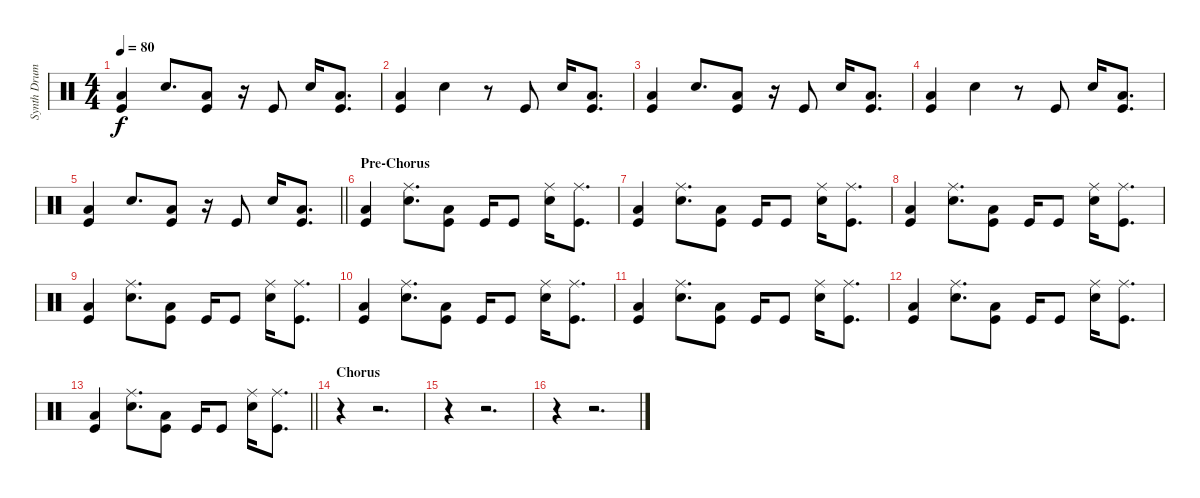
\track ("Synth Drums" "Synth Drum") {instrument percussion}
\staff {score}
\articulation defaults
\ts (4 4)
\tempo 80
\clef neutral
\ks c
("Kick (hit)" "Low Floor Tom (hit)").4{dy f} "Snare (hit) 2".8{d} ("Kick (hit)" "Low Floor Tom (hit)").8 r.16 "Kick (hit)".8 "Snare (hit) 2".16 ("Kick (hit)" "Low Floor Tom (hit)").8{d} |
("Kick (hit)" "Low Floor Tom (hit)").4 "Snare (hit) 2".4 r.8 "Kick (hit)".8 "Snare (hit) 2".16 ("Kick (hit)" "Low Floor Tom (hit)").8{d} |
("Kick (hit)" "Low Floor Tom (hit)").4 "Snare (hit) 2".8{d} ("Kick (hit)" "Low Floor Tom (hit)").8 r.16 "Kick (hit)".8 "Snare (hit) 2".16 ("Kick (hit)" "Low Floor Tom (hit)").8{d} |
("Kick (hit)" "Low Floor Tom (hit)").4 "Snare (hit) 2".4 r.8 "Kick (hit)".8 "Snare (hit) 2".16 ("Kick (hit)" "Low Floor Tom (hit)").8{d} |
\barLineRight lightlight
("Kick (hit)" "Low Floor Tom (hit)").4 "Snare (hit) 2".8{d} ("Kick (hit)" "Low Floor Tom (hit)").8 r.16 "Kick (hit)".8 "Snare (hit) 2".16 ("Kick (hit)" "Low Floor Tom (hit)").8{d} |
\section ("" "Pre-Chorus")
("Kick (hit)" "Low Floor Tom (hit)").4 ("Snare (hit) 2" "Ride (middle)").8{d} ("Kick (hit)" "Low Floor Tom (hit)").8 "Kick (hit)".16 "Kick (hit)".8 ("Snare (hit) 2" "Ride (middle)").16 ("Kick (hit)" "Ride (middle)").8{d} |
("Kick (hit)" "Low Floor Tom (hit)").4 ("Snare (hit) 2" "Ride (middle)").8{d} ("Kick (hit)" "Low Floor Tom (hit)").8 "Kick (hit)".16 "Kick (hit)".8 ("Snare (hit) 2" "Ride (middle)").16 ("Kick (hit)" "Ride (middle)").8{d} |
("Kick (hit)" "Low Floor Tom (hit)").4 ("Snare (hit) 2" "Ride (middle)").8{d} ("Kick (hit)" "Low Floor Tom (hit)").8 "Kick (hit)".16 "Kick (hit)".8 ("Snare (hit) 2" "Ride (middle)").16 ("Kick (hit)" "Ride (middle)").8{d} |
("Kick (hit)" "Low Floor Tom (hit)").4 ("Snare (hit) 2" "Ride (middle)").8{d} ("Kick (hit)" "Low Floor Tom (hit)").8 "Kick (hit)".16 "Kick (hit)".8 ("Snare (hit) 2" "Ride (middle)").16 ("Kick (hit)" "Ride (middle)").8{d} |
("Kick (hit)" "Low Floor Tom (hit)").4 ("Snare (hit) 2" "Ride (middle)").8{d} ("Kick (hit)" "Low Floor Tom (hit)").8 "Kick (hit)".16 "Kick (hit)".8 ("Snare (hit) 2" "Ride (middle)").16 ("Kick (hit)" "Ride (middle)").8{d} |
("Kick (hit)" "Low Floor Tom (hit)").4 ("Snare (hit) 2" "Ride (middle)").8{d} ("Kick (hit)" "Low Floor Tom (hit)").8 "Kick (hit)".16 "Kick (hit)".8 ("Snare (hit) 2" "Ride (middle)").16 ("Kick (hit)" "Ride (middle)").8{d} |
("Kick (hit)" "Low Floor Tom (hit)").4 ("Snare (hit) 2" "Ride (middle)").8{d} ("Kick (hit)" "Low Floor Tom (hit)").8 "Kick (hit)".16 "Kick (hit)".8 ("Snare (hit) 2" "Ride (middle)").16 ("Kick (hit)" "Ride (middle)").8{d} |
\barLineRight lightlight
("Kick (hit)" "Low Floor Tom (hit)").4 ("Snare (hit) 2" "Ride (middle)").8{d} ("Kick (hit)" "Low Floor Tom (hit)").8 "Kick (hit)".16 "Kick (hit)".8 ("Snare (hit) 2" "Ride (middle)").16 ("Kick (hit)" "Ride (middle)").8{d} |
\section ("" "Chorus")
r.4 r.2{d} |
r.4 r.2{d} |
r.4 r.2{d}
